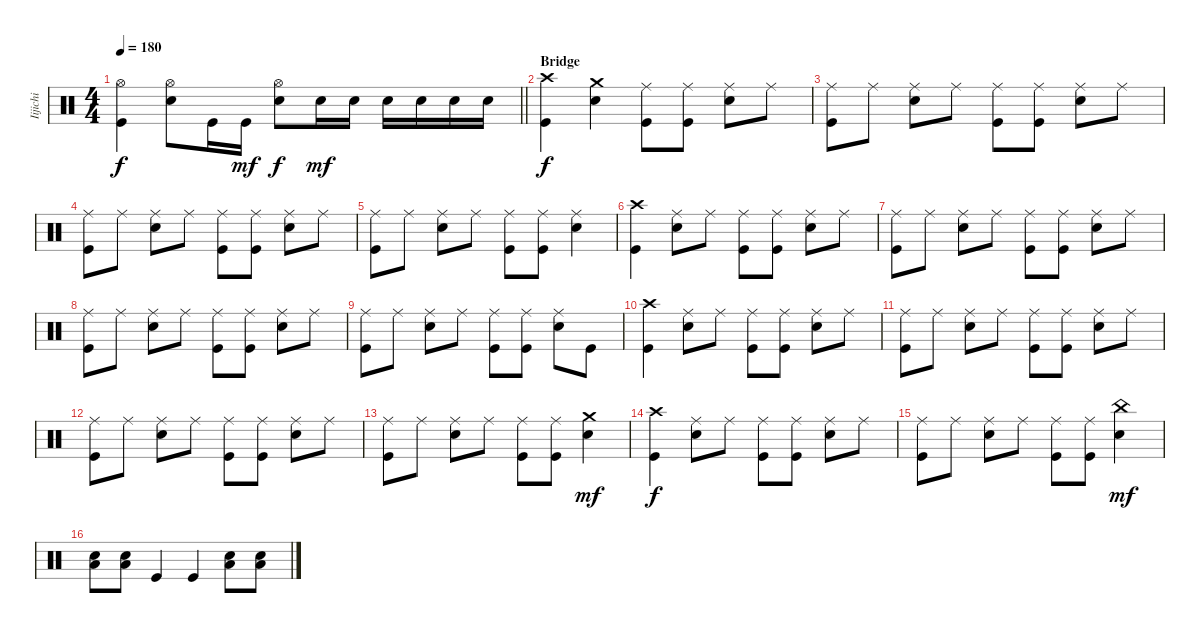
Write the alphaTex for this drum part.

\track ("Iijichi" "Iijichi") {instrument percussion}
\staff {score}
\articulation defaults
\ts (4 4)
\tempo 180
\clef neutral
\barLineRight lightlight
\ks c
("Hi-Hat (open)" "Kick (hit)").4{dy f} ("Hi-Hat (open)" "Electric Snare (hit)").8 "Kick (hit)".16 "Kick (hit)".16{dy mf} ("Hi-Hat (open)" "Electric Snare (hit)").8{dy f} "Electric Snare (hit)".16{dy mf} "Electric Snare (hit)".16 "Electric Snare (hit)".16 "Electric Snare (hit)".16 "Electric Snare (hit)".16 "Electric Snare (hit)".16 |
\section ("" "Bridge")
("Kick (hit)" "Crash high (hit)").4{dy f} ("Electric Snare (hit)" "Crash medium (hit)").4 ("Ride (middle)" "Kick (hit)").8 ("Ride (middle)" "Kick (hit)").8 ("Ride (middle)" "Electric Snare (hit)").8 "Ride (middle)".8 |
("Ride (middle)" "Kick (hit)").8 "Ride (middle)".8 ("Ride (middle)" "Electric Snare (hit)").8 "Ride (middle)".8 ("Ride (middle)" "Kick (hit)").8 ("Ride (middle)" "Kick (hit)").8 ("Ride (middle)" "Electric Snare (hit)").8 "Ride (middle)".8 |
("Ride (middle)" "Kick (hit)").8 "Ride (middle)".8 ("Ride (middle)" "Electric Snare (hit)").8 "Ride (middle)".8 ("Ride (middle)" "Kick (hit)").8 ("Ride (middle)" "Kick (hit)").8 ("Ride (middle)" "Electric Snare (hit)").8 "Ride (middle)".8 |
("Ride (middle)" "Kick (hit)").8 "Ride (middle)".8 ("Ride (middle)" "Electric Snare (hit)").8 "Ride (middle)".8 ("Ride (middle)" "Kick (hit)").8 ("Ride (middle)" "Kick (hit)").8 ("Ride (middle)" "Electric Snare (hit)").4 |
("Kick (hit)" "Crash high (hit)").4 ("Ride (middle)" "Electric Snare (hit)").8 "Ride (middle)".8 ("Ride (middle)" "Kick (hit)").8 ("Ride (middle)" "Kick (hit)").8 ("Ride (middle)" "Electric Snare (hit)").8 "Ride (middle)".8 |
("Ride (middle)" "Kick (hit)").8 "Ride (middle)".8 ("Ride (middle)" "Electric Snare (hit)").8 "Ride (middle)".8 ("Ride (middle)" "Kick (hit)").8 ("Ride (middle)" "Kick (hit)").8 ("Ride (middle)" "Electric Snare (hit)").8 "Ride (middle)".8 |
("Ride (middle)" "Kick (hit)").8 "Ride (middle)".8 ("Ride (middle)" "Electric Snare (hit)").8 "Ride (middle)".8 ("Ride (middle)" "Kick (hit)").8 ("Ride (middle)" "Kick (hit)").8 ("Ride (middle)" "Electric Snare (hit)").8 "Ride (middle)".8 |
("Ride (middle)" "Kick (hit)").8 "Ride (middle)".8 ("Ride (middle)" "Electric Snare (hit)").8 "Ride (middle)".8 ("Ride (middle)" "Kick (hit)").8 ("Ride (middle)" "Kick (hit)").8 ("Ride (middle)" "Electric Snare (hit)").8 "Kick (hit)".8 |
("Kick (hit)" "Crash high (hit)").4 ("Ride (middle)" "Electric Snare (hit)").8 "Ride (middle)".8 ("Ride (middle)" "Kick (hit)").8 ("Ride (middle)" "Kick (hit)").8 ("Ride (middle)" "Electric Snare (hit)").8 "Ride (middle)".8 |
("Ride (middle)" "Kick (hit)").8 "Ride (middle)".8 ("Ride (middle)" "Electric Snare (hit)").8 "Ride (middle)".8 ("Ride (middle)" "Kick (hit)").8 ("Ride (middle)" "Kick (hit)").8 ("Ride (middle)" "Electric Snare (hit)").8 "Ride (middle)".8 |
("Ride (middle)" "Kick (hit)").8 "Ride (middle)".8 ("Ride (middle)" "Electric Snare (hit)").8 "Ride (middle)".8 ("Ride (middle)" "Kick (hit)").8 ("Ride (middle)" "Kick (hit)").8 ("Ride (middle)" "Electric Snare (hit)").8 "Ride (middle)".8 |
("Ride (middle)" "Kick (hit)").8 "Ride (middle)".8 ("Ride (middle)" "Electric Snare (hit)").8 "Ride (middle)".8 ("Ride (middle)" "Kick (hit)").8 ("Ride (middle)" "Kick (hit)").8 ("Crash medium (hit)" "Electric Snare (hit)").4{dy mf} |
("Kick (hit)" "Crash high (hit)").4{dy f} ("Ride (middle)" "Electric Snare (hit)").8 "Ride (middle)".8 ("Ride (middle)" "Kick (hit)").8 ("Ride (middle)" "Kick (hit)").8 ("Ride (middle)" "Electric Snare (hit)").8 "Ride (middle)".8 |
("Ride (middle)" "Kick (hit)").8 "Ride (middle)".8 ("Ride (middle)" "Electric Snare (hit)").8 "Ride (middle)".8 ("Ride (middle)" "Kick (hit)").8 ("Ride (middle)" "Kick (hit)").8 ("China (hit)" "Electric Snare (hit)").4{dy mf} |
("Electric Snare (hit)" "Low Floor Tom (hit)").8 ("Electric Snare (hit)" "Low Floor Tom (hit)").8 "Kick (hit)".4 "Kick (hit)".4 ("Electric Snare (hit)" "Low Floor Tom (hit)").8 ("Electric Snare (hit)" "Low Floor Tom (hit)").8
